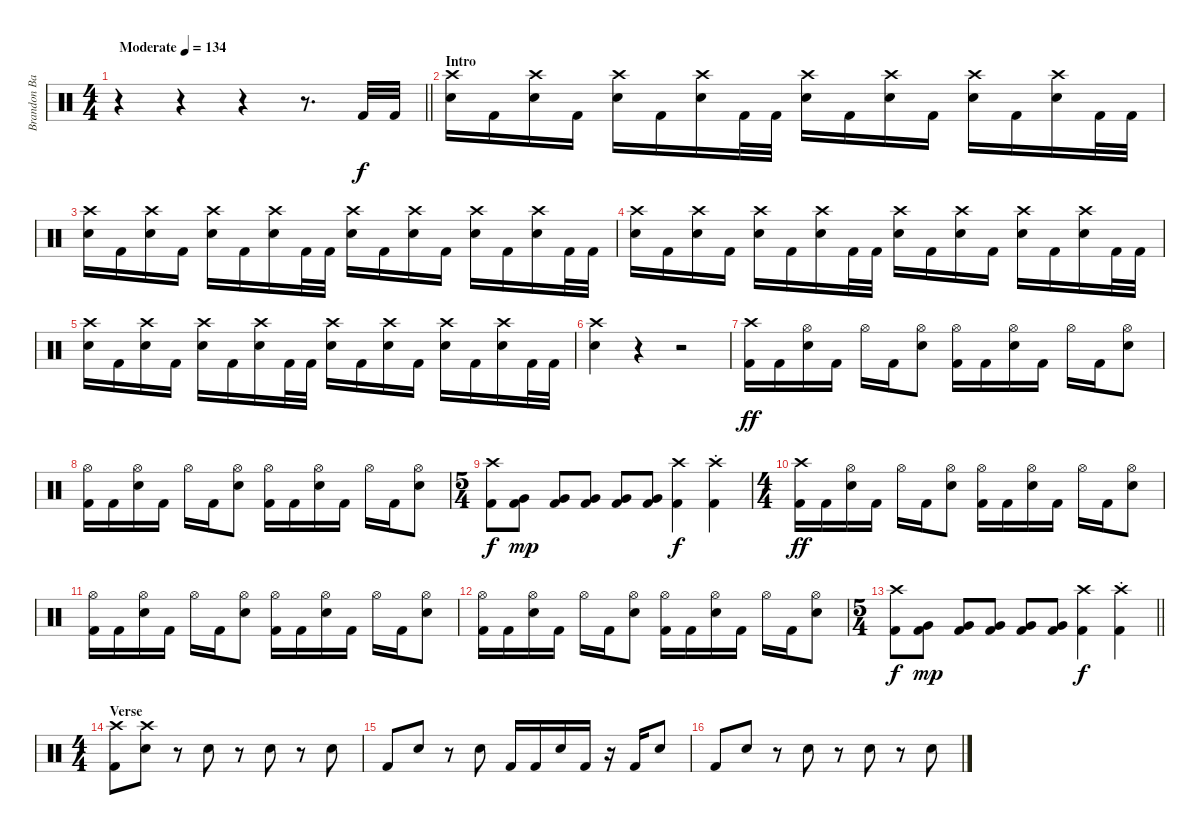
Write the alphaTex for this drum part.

\track ("Brandon Barnes - Drums" "Brandon Ba") {instrument percussion}
\staff {score}
\articulation defaults
\ts (4 4)
\tempo (134 "Moderate")
\clef neutral
\barLineRight lightlight
\ks c
r.4{dy f} r.4 r.4 r.8{d} "Kick (hit) 2".32 "Kick (hit) 2".32 |
\section ("" "Intro")
("Snare (hit) 2" "Crash high (hit)").16 "Kick (hit) 2".16 ("Snare (hit) 2" "Crash high (hit)").16 "Kick (hit) 2".16 ("Snare (hit) 2" "Crash high (hit)").16 "Kick (hit) 2".16 ("Snare (hit) 2" "Crash high (hit)").16 "Kick (hit) 2".32 "Kick (hit) 2".32 ("Snare (hit) 2" "Crash high (hit)").16 "Kick (hit) 2".16 ("Snare (hit) 2" "Crash high (hit)").16 "Kick (hit) 2".16 ("Snare (hit) 2" "Crash high (hit)").16 "Kick (hit) 2".16 ("Snare (hit) 2" "Crash high (hit)").16 "Kick (hit) 2".32 "Kick (hit) 2".32 |
("Snare (hit) 2" "Crash high (hit)").16 "Kick (hit) 2".16 ("Snare (hit) 2" "Crash high (hit)").16 "Kick (hit) 2".16 ("Snare (hit) 2" "Crash high (hit)").16 "Kick (hit) 2".16 ("Snare (hit) 2" "Crash high (hit)").16 "Kick (hit) 2".32 "Kick (hit) 2".32 ("Snare (hit) 2" "Crash high (hit)").16 "Kick (hit) 2".16 ("Snare (hit) 2" "Crash high (hit)").16 "Kick (hit) 2".16 ("Snare (hit) 2" "Crash high (hit)").16 "Kick (hit) 2".16 ("Snare (hit) 2" "Crash high (hit)").16 "Kick (hit) 2".32 "Kick (hit) 2".32 |
("Snare (hit) 2" "Crash high (hit)").16 "Kick (hit) 2".16 ("Snare (hit) 2" "Crash high (hit)").16 "Kick (hit) 2".16 ("Snare (hit) 2" "Crash high (hit)").16 "Kick (hit) 2".16 ("Snare (hit) 2" "Crash high (hit)").16 "Kick (hit) 2".32 "Kick (hit) 2".32 ("Snare (hit) 2" "Crash high (hit)").16 "Kick (hit) 2".16 ("Snare (hit) 2" "Crash high (hit)").16 "Kick (hit) 2".16 ("Snare (hit) 2" "Crash high (hit)").16 "Kick (hit) 2".16 ("Snare (hit) 2" "Crash high (hit)").16 "Kick (hit) 2".32 "Kick (hit) 2".32 |
("Snare (hit) 2" "Crash high (hit)").16 "Kick (hit) 2".16 ("Snare (hit) 2" "Crash high (hit)").16 "Kick (hit) 2".16 ("Snare (hit) 2" "Crash high (hit)").16 "Kick (hit) 2".16 ("Snare (hit) 2" "Crash high (hit)").16 "Kick (hit) 2".32 "Kick (hit) 2".32 ("Snare (hit) 2" "Crash high (hit)").16 "Kick (hit) 2".16 ("Snare (hit) 2" "Crash high (hit)").16 "Kick (hit) 2".16 ("Snare (hit) 2" "Crash high (hit)").16 "Kick (hit) 2".16 ("Snare (hit) 2" "Crash high (hit)").16 "Kick (hit) 2".32 "Kick (hit) 2".32 |
("Snare (hit) 2" "Crash high (hit)").4 r.4{volume 0} r.2 |
("Crash high (hit)" "Kick (hit) 2").16{dy ff volume 9} "Kick (hit) 2".16 ("Snare (hit) 2" "Hi-Hat (open)").16 "Kick (hit) 2".16 "Hi-Hat (open)".16 "Kick (hit) 2".16 ("Snare (hit) 2" "Hi-Hat (open)").8 ("Hi-Hat (open)" "Kick (hit) 2").16 "Kick (hit) 2".16 ("Snare (hit) 2" "Hi-Hat (open)").16 "Kick (hit) 2".16 "Hi-Hat (open)".16 "Kick (hit) 2".16 ("Snare (hit) 2" "Hi-Hat (open)").8 |
("Hi-Hat (open)" "Kick (hit) 2").16 "Kick (hit) 2".16 ("Snare (hit) 2" "Hi-Hat (open)").16 "Kick (hit) 2".16 "Hi-Hat (open)".16 "Kick (hit) 2".16 ("Snare (hit) 2" "Hi-Hat (open)").8 ("Hi-Hat (open)" "Kick (hit) 2").16 "Kick (hit) 2".16 ("Snare (hit) 2" "Hi-Hat (open)").16 "Kick (hit) 2".16 "Hi-Hat (open)".16 "Kick (hit) 2".16 ("Snare (hit) 2" "Hi-Hat (open)").8 |
\ts (5 4)
("Kick (hit) 2" "Crash high (hit)").8{dy f} ("Very Low Tom (hit)" "Kick (hit) 2").8{dy mp} ("Very Low Tom (hit)" "Kick (hit) 2").8 ("Very Low Tom (hit)" "Kick (hit) 2").8 ("Very Low Tom (hit)" "Kick (hit) 2").8 ("Very Low Tom (hit)" "Kick (hit) 2").8 ("Kick (hit) 2" "Crash high (hit)").4{dy f} ("Kick (hit) 2"{st} "Crash high (hit)"{st}).4 |
\ts (4 4)
("Crash high (hit)" "Kick (hit) 2").16{dy ff} "Kick (hit) 2".16 ("Snare (hit) 2" "Hi-Hat (open)").16 "Kick (hit) 2".16 "Hi-Hat (open)".16 "Kick (hit) 2".16 ("Snare (hit) 2" "Hi-Hat (open)").8 ("Hi-Hat (open)" "Kick (hit) 2").16 "Kick (hit) 2".16 ("Snare (hit) 2" "Hi-Hat (open)").16 "Kick (hit) 2".16 "Hi-Hat (open)".16 "Kick (hit) 2".16 ("Snare (hit) 2" "Hi-Hat (open)").8 |
("Hi-Hat (open)" "Kick (hit) 2").16 "Kick (hit) 2".16 ("Snare (hit) 2" "Hi-Hat (open)").16 "Kick (hit) 2".16 "Hi-Hat (open)".16 "Kick (hit) 2".16 ("Snare (hit) 2" "Hi-Hat (open)").8 ("Hi-Hat (open)" "Kick (hit) 2").16 "Kick (hit) 2".16 ("Snare (hit) 2" "Hi-Hat (open)").16 "Kick (hit) 2".16 "Hi-Hat (open)".16 "Kick (hit) 2".16 ("Snare (hit) 2" "Hi-Hat (open)").8 |
("Hi-Hat (open)" "Kick (hit) 2").16 "Kick (hit) 2".16 ("Snare (hit) 2" "Hi-Hat (open)").16 "Kick (hit) 2".16 "Hi-Hat (open)".16 "Kick (hit) 2".16 ("Snare (hit) 2" "Hi-Hat (open)").8 ("Hi-Hat (open)" "Kick (hit) 2").16 "Kick (hit) 2".16 ("Snare (hit) 2" "Hi-Hat (open)").16 "Kick (hit) 2".16 "Hi-Hat (open)".16 "Kick (hit) 2".16 ("Snare (hit) 2" "Hi-Hat (open)").8 |
\ts (5 4)
\barLineRight lightlight
("Kick (hit) 2" "Crash high (hit)").8{dy f} ("Very Low Tom (hit)" "Kick (hit) 2").8{dy mp} ("Very Low Tom (hit)" "Kick (hit) 2").8 ("Very Low Tom (hit)" "Kick (hit) 2").8 ("Very Low Tom (hit)" "Kick (hit) 2").8 ("Very Low Tom (hit)" "Kick (hit) 2").8 ("Kick (hit) 2" "Crash high (hit)").4{dy f} ("Kick (hit) 2"{st} "Crash high (hit)"{st}).4 |
\ts (4 4)
\section ("" "Verse")
("Kick (hit) 2" "Crash high (hit)").8 ("Snare (hit) 2" "Crash high (hit)").8 r.8 "Snare (hit) 2".8 r.8 "Snare (hit) 2".8 r.8 "Snare (hit) 2".8 |
"Kick (hit) 2".8 "Snare (hit) 2".8 r.8 "Snare (hit) 2".8 "Kick (hit) 2".16 "Kick (hit) 2".16 "Snare (hit) 2".16 "Kick (hit) 2".16 r.16 "Kick (hit) 2".16 "Snare (hit) 2".8 |
"Kick (hit) 2".8 "Snare (hit) 2".8 r.8 "Snare (hit) 2".8 r.8 "Snare (hit) 2".8 r.8 "Snare (hit) 2".8
